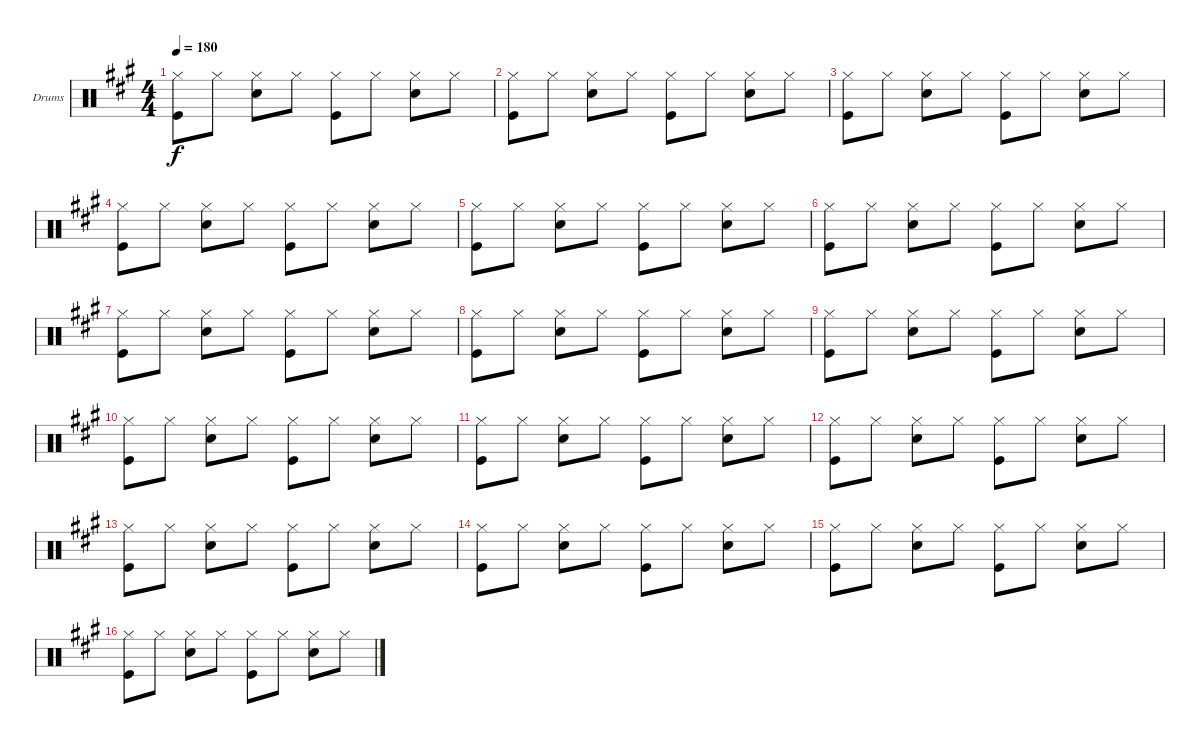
\defaultSystemsLayout 4
\bracketExtendMode groupsimilarinstruments
\firstSystemTrackNameOrientation horizontal
\otherSystemsTrackNameOrientation horizontal
\track ("Drumkit" "Drums") {instrument percussion}
\staff {score}
\articulation defaults
\ts (4 4)
\tempo 180
\clef neutral
\ks f#minor
("Hi-Hat (closed)" "Kick (hit)").8{dy f} "Hi-Hat (closed)".8 ("Hi-Hat (closed)" "Snare (hit) 2").8 "Hi-Hat (closed)".8 ("Hi-Hat (closed)" "Kick (hit)").8 "Hi-Hat (closed)".8 ("Hi-Hat (closed)" "Snare (hit) 2").8 "Hi-Hat (closed)".8 |
("Hi-Hat (closed)" "Kick (hit)").8 "Hi-Hat (closed)".8 ("Hi-Hat (closed)" "Snare (hit) 2").8 "Hi-Hat (closed)".8 ("Hi-Hat (closed)" "Kick (hit)").8 "Hi-Hat (closed)".8 ("Hi-Hat (closed)" "Snare (hit) 2").8 "Hi-Hat (closed)".8 |
("Hi-Hat (closed)" "Kick (hit)").8 "Hi-Hat (closed)".8 ("Hi-Hat (closed)" "Snare (hit) 2").8 "Hi-Hat (closed)".8 ("Hi-Hat (closed)" "Kick (hit)").8 "Hi-Hat (closed)".8 ("Hi-Hat (closed)" "Snare (hit) 2").8 "Hi-Hat (closed)".8 |
("Hi-Hat (closed)" "Kick (hit)").8 "Hi-Hat (closed)".8 ("Hi-Hat (closed)" "Snare (hit) 2").8 "Hi-Hat (closed)".8 ("Hi-Hat (closed)" "Kick (hit)").8 "Hi-Hat (closed)".8 ("Hi-Hat (closed)" "Snare (hit) 2").8 "Hi-Hat (closed)".8 |
("Hi-Hat (closed)" "Kick (hit)").8 "Hi-Hat (closed)".8 ("Hi-Hat (closed)" "Snare (hit) 2").8 "Hi-Hat (closed)".8 ("Hi-Hat (closed)" "Kick (hit)").8 "Hi-Hat (closed)".8 ("Hi-Hat (closed)" "Snare (hit) 2").8 "Hi-Hat (closed)".8 |
("Hi-Hat (closed)" "Kick (hit)").8 "Hi-Hat (closed)".8 ("Hi-Hat (closed)" "Snare (hit) 2").8 "Hi-Hat (closed)".8 ("Hi-Hat (closed)" "Kick (hit)").8 "Hi-Hat (closed)".8 ("Hi-Hat (closed)" "Snare (hit) 2").8 "Hi-Hat (closed)".8 |
("Hi-Hat (closed)" "Kick (hit)").8 "Hi-Hat (closed)".8 ("Hi-Hat (closed)" "Snare (hit) 2").8 "Hi-Hat (closed)".8 ("Hi-Hat (closed)" "Kick (hit)").8 "Hi-Hat (closed)".8 ("Hi-Hat (closed)" "Snare (hit) 2").8 "Hi-Hat (closed)".8 |
("Hi-Hat (closed)" "Kick (hit)").8 "Hi-Hat (closed)".8 ("Hi-Hat (closed)" "Snare (hit) 2").8 "Hi-Hat (closed)".8 ("Hi-Hat (closed)" "Kick (hit)").8 "Hi-Hat (closed)".8 ("Hi-Hat (closed)" "Snare (hit) 2").8 "Hi-Hat (closed)".8 |
("Hi-Hat (closed)" "Kick (hit)").8 "Hi-Hat (closed)".8 ("Hi-Hat (closed)" "Snare (hit) 2").8 "Hi-Hat (closed)".8 ("Hi-Hat (closed)" "Kick (hit)").8 "Hi-Hat (closed)".8 ("Hi-Hat (closed)" "Snare (hit) 2").8 "Hi-Hat (closed)".8 |
("Hi-Hat (closed)" "Kick (hit)").8 "Hi-Hat (closed)".8 ("Hi-Hat (closed)" "Snare (hit) 2").8 "Hi-Hat (closed)".8 ("Hi-Hat (closed)" "Kick (hit)").8 "Hi-Hat (closed)".8 ("Hi-Hat (closed)" "Snare (hit) 2").8 "Hi-Hat (closed)".8 |
("Hi-Hat (closed)" "Kick (hit)").8 "Hi-Hat (closed)".8 ("Hi-Hat (closed)" "Snare (hit) 2").8 "Hi-Hat (closed)".8 ("Hi-Hat (closed)" "Kick (hit)").8 "Hi-Hat (closed)".8 ("Hi-Hat (closed)" "Snare (hit) 2").8 "Hi-Hat (closed)".8 |
("Hi-Hat (closed)" "Kick (hit)").8 "Hi-Hat (closed)".8 ("Hi-Hat (closed)" "Snare (hit) 2").8 "Hi-Hat (closed)".8 ("Hi-Hat (closed)" "Kick (hit)").8 "Hi-Hat (closed)".8 ("Hi-Hat (closed)" "Snare (hit) 2").8 "Hi-Hat (closed)".8 |
("Hi-Hat (closed)" "Kick (hit)").8 "Hi-Hat (closed)".8 ("Hi-Hat (closed)" "Snare (hit) 2").8 "Hi-Hat (closed)".8 ("Hi-Hat (closed)" "Kick (hit)").8 "Hi-Hat (closed)".8 ("Hi-Hat (closed)" "Snare (hit) 2").8 "Hi-Hat (closed)".8 |
("Hi-Hat (closed)" "Kick (hit)").8 "Hi-Hat (closed)".8 ("Hi-Hat (closed)" "Snare (hit) 2").8 "Hi-Hat (closed)".8 ("Hi-Hat (closed)" "Kick (hit)").8 "Hi-Hat (closed)".8 ("Hi-Hat (closed)" "Snare (hit) 2").8 "Hi-Hat (closed)".8 |
("Hi-Hat (closed)" "Kick (hit)").8 "Hi-Hat (closed)".8 ("Hi-Hat (closed)" "Snare (hit) 2").8 "Hi-Hat (closed)".8 ("Hi-Hat (closed)" "Kick (hit)").8 "Hi-Hat (closed)".8 ("Hi-Hat (closed)" "Snare (hit) 2").8 "Hi-Hat (closed)".8 |
("Hi-Hat (closed)" "Kick (hit)").8 "Hi-Hat (closed)".8 ("Hi-Hat (closed)" "Snare (hit) 2").8 "Hi-Hat (closed)".8 ("Hi-Hat (closed)" "Kick (hit)").8 "Hi-Hat (closed)".8 ("Hi-Hat (closed)" "Snare (hit) 2").8 "Hi-Hat (closed)".8
